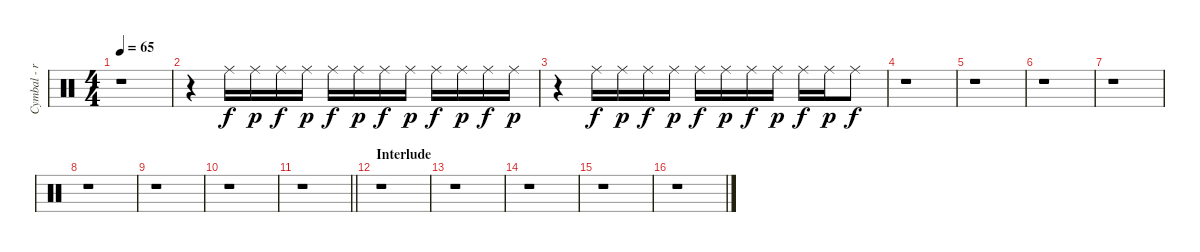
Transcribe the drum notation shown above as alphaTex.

\track ("Cymbal - ride" "Cymbal - r") {instrument percussion}
\staff {score}
\articulation defaults
\ts (4 4)
\tempo 65
\clef neutral
\ks c
r.1{dy f} |
r.4 "Ride (middle)".16 "Ride (middle)".16{dy p} "Ride (middle)".16{dy f} "Ride (middle)".16{dy p} "Ride (middle)".16{dy f} "Ride (middle)".16{dy p} "Ride (middle)".16{dy f} "Ride (middle)".16{dy p} "Ride (middle)".16{dy f} "Ride (middle)".16{dy p} "Ride (middle)".16{dy f} "Ride (middle)".16{dy p} |
r.4 "Ride (middle)".16{dy f} "Ride (middle)".16{dy p} "Ride (middle)".16{dy f} "Ride (middle)".16{dy p} "Ride (middle)".16{dy f} "Ride (middle)".16{dy p} "Ride (middle)".16{dy f} "Ride (middle)".16{dy p} "Ride (middle)".16{dy f} "Ride (middle)".16{dy p} "Ride (middle)".8{dy f} |
r.1 |
r.1 |
r.1 |
r.1 |
r.1 |
r.1 |
r.1 |
\barLineRight lightlight
r.1 |
\section ("" "Interlude")
r.1 |
r.1 |
r.1 |
r.1 |
r.1
